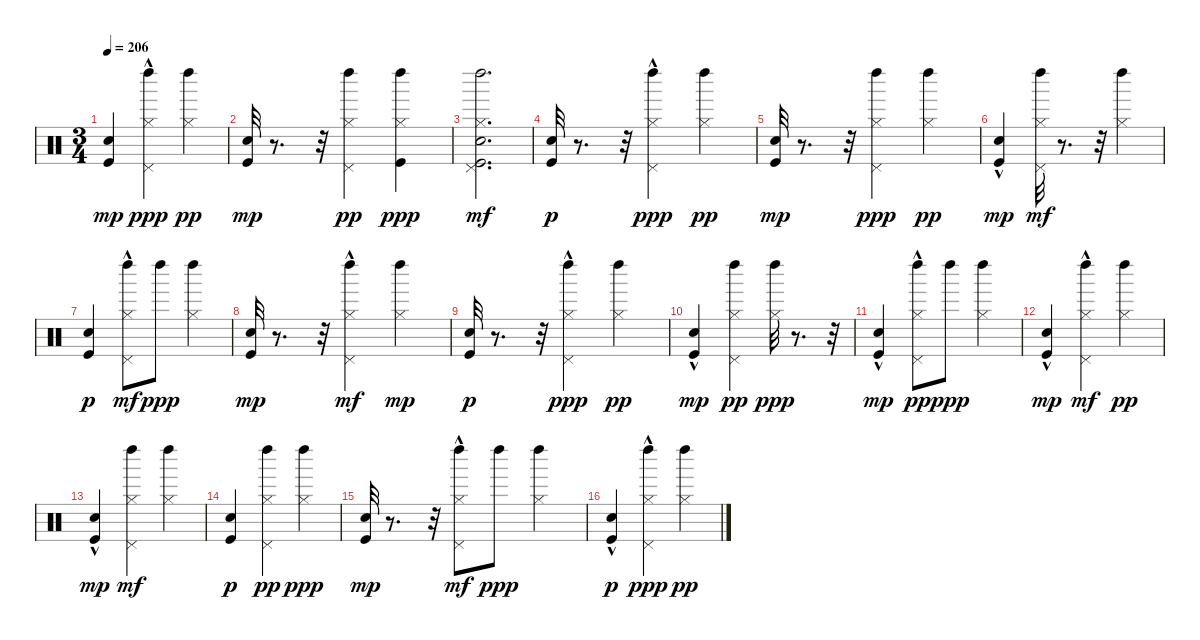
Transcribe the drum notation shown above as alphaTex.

\track "" {instrument percussion}
\staff {score}
\articulation defaults
\ts (3 4)
\tempo 206
\clef neutral
\ks c
("Kick (hit)" "Snare (hit)").4{dy mp} ("Pedal Hi-Hat (hit)"{hac} "Hi-Hat (closed)" "Left Maraca (hit)").4{dy ppp} ("Hi-Hat (closed)" "Left Maraca (hit)").4{dy pp} |
("Kick (hit)" "Snare (hit)").32{dy mp} r.8{d} r.32 ("Pedal Hi-Hat (hit)" "Hi-Hat (closed)" "Left Maraca (hit)").4{dy pp} ("Kick (hit)" "Hi-Hat (closed)" "Left Maraca (hit)").4{dy ppp} |
("Pedal Hi-Hat (hit)" "Left Maraca (hit)" "Snare (hit)" "Kick (hit)" "Hi-Hat (closed)").2{d dy mf} |
("Snare (hit)" "Kick (hit)").32{dy p} r.8{d} r.32 ("Hi-Hat (closed)" "Pedal Hi-Hat (hit)"{hac} "Left Maraca (hit)").4{dy ppp} ("Hi-Hat (closed)" "Left Maraca (hit)").4{dy pp} |
("Kick (hit)" "Snare (hit)").32{dy mp} r.8{d} r.32 ("Pedal Hi-Hat (hit)" "Hi-Hat (closed)" "Left Maraca (hit)").4{dy ppp} ("Hi-Hat (closed)" "Left Maraca (hit)").4{dy pp} |
("Kick (hit)"{hac} "Snare (hit)"{hac}).4{dy mp} ("Pedal Hi-Hat (hit)" "Left Maraca (hit)" "Hi-Hat (closed)").32{dy mf} r.8{d} r.32 ("Left Maraca (hit)" "Hi-Hat (closed)").4 |
("Snare (hit)" "Kick (hit)").4{dy p} ("Left Maraca (hit)" "Pedal Hi-Hat (hit)"{hac} "Hi-Hat (closed)").8{dy mf} "Left Maraca (hit)".8{dy ppp} ("Hi-Hat (closed)" "Left Maraca (hit)").4 |
("Kick (hit)" "Snare (hit)").32{dy mp} r.8{d} r.32 ("Pedal Hi-Hat (hit)"{hac} "Left Maraca (hit)" "Hi-Hat (closed)").4{dy mf} ("Left Maraca (hit)" "Hi-Hat (closed)").4{dy mp} |
("Snare (hit)" "Kick (hit)").32{dy p} r.8{d} r.32 ("Hi-Hat (closed)" "Pedal Hi-Hat (hit)"{hac} "Left Maraca (hit)").4{dy ppp} ("Hi-Hat (closed)" "Left Maraca (hit)").4{dy pp} |
("Kick (hit)"{hac} "Snare (hit)"{hac}).4{dy mp} ("Pedal Hi-Hat (hit)" "Hi-Hat (closed)" "Left Maraca (hit)").4{dy pp} ("Hi-Hat (closed)" "Left Maraca (hit)").32{dy ppp} r.8{d} r.32 |
("Kick (hit)" "Snare (hit)"{hac}).4{dy mp} ("Pedal Hi-Hat (hit)"{hac} "Hi-Hat (closed)" "Left Maraca (hit)").8{dy pp} "Left Maraca (hit)".8{dy ppp} ("Hi-Hat (closed)" "Left Maraca (hit)").4 |
("Kick (hit)" "Snare (hit)"{hac}).4{dy mp} ("Pedal Hi-Hat (hit)"{hac} "Left Maraca (hit)" "Hi-Hat (closed)").4{dy mf} ("Hi-Hat (closed)" "Left Maraca (hit)").4{dy pp} |
("Kick (hit)" "Snare (hit)"{hac}).4{dy mp} ("Pedal Hi-Hat (hit)" "Left Maraca (hit)" "Hi-Hat (closed)").4{dy mf} ("Left Maraca (hit)" "Hi-Hat (closed)").4 |
("Snare (hit)" "Kick (hit)").4{dy p} ("Hi-Hat (closed)" "Pedal Hi-Hat (hit)" "Left Maraca (hit)").4{dy pp} ("Hi-Hat (closed)" "Left Maraca (hit)").4{dy ppp} |
("Kick (hit)" "Snare (hit)").32{dy mp} r.8{d} r.32 ("Left Maraca (hit)" "Pedal Hi-Hat (hit)"{hac} "Hi-Hat (closed)").8{dy mf} "Left Maraca (hit)".8{dy ppp} ("Hi-Hat (closed)" "Left Maraca (hit)").4 |
("Snare (hit)"{hac} "Kick (hit)").4{dy p} ("Pedal Hi-Hat (hit)"{hac} "Hi-Hat (closed)" "Left Maraca (hit)").4{dy ppp} ("Hi-Hat (closed)" "Left Maraca (hit)").4{dy pp}
